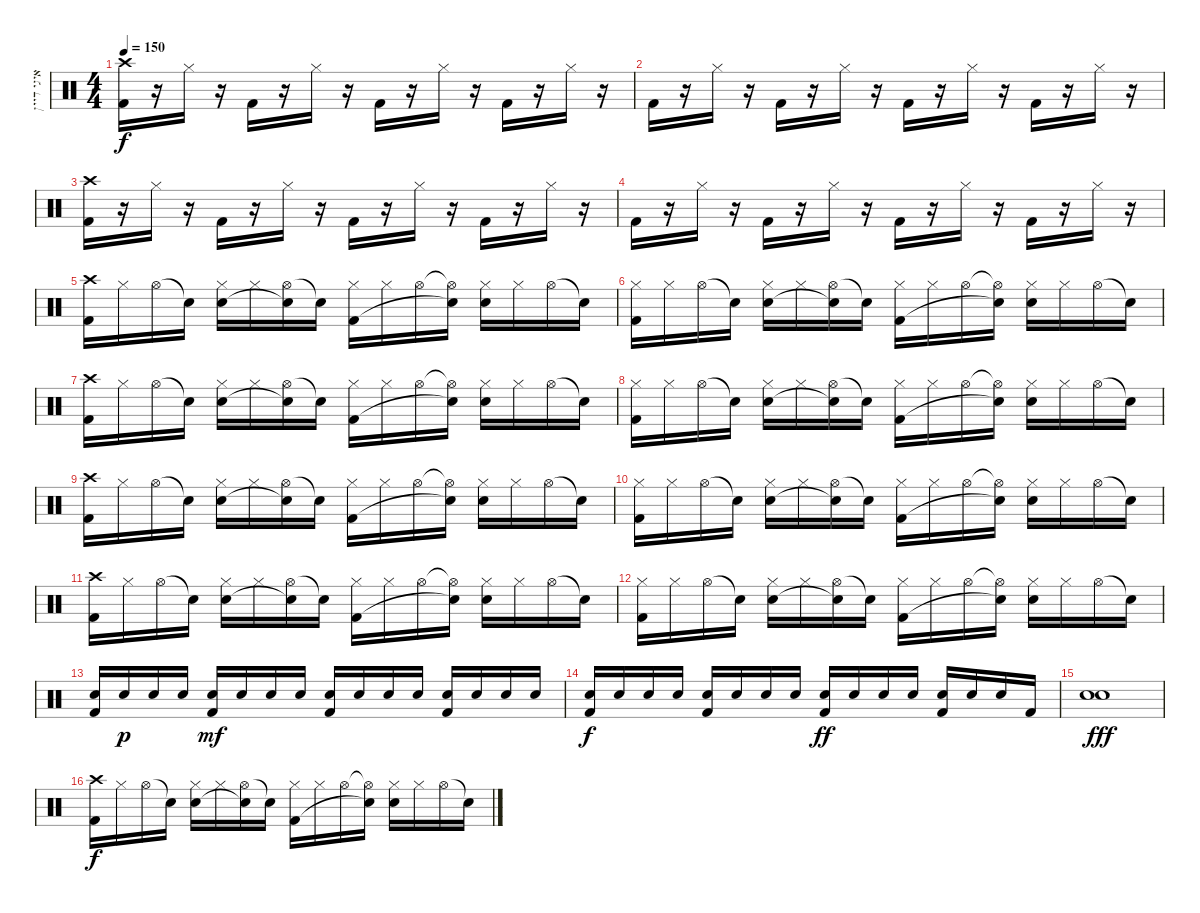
\track ("איגי דיין" "איגי דיין") {instrument percussion}
\staff {score}
\articulation defaults
\ts (4 4)
\tempo 150
\clef neutral
\ks c
("Crash high (hit)" "Kick (hit) 2").16{dy f} r.16 "Hi-Hat (closed)".16 r.16 "Kick (hit) 2".16 r.16 "Hi-Hat (closed)".16 r.16 "Kick (hit) 2".16 r.16 "Hi-Hat (closed)".16 r.16 "Kick (hit) 2".16 r.16 "Hi-Hat (closed)".16 r.16 |
"Kick (hit) 2".16 r.16 "Hi-Hat (closed)".16 r.16 "Kick (hit) 2".16 r.16 "Hi-Hat (closed)".16 r.16 "Kick (hit) 2".16 r.16 "Hi-Hat (closed)".16 r.16 "Kick (hit) 2".16 r.16 "Hi-Hat (closed)".16 r.16 |
("Crash high (hit)" "Kick (hit) 2").16 r.16 "Hi-Hat (closed)".16 r.16 "Kick (hit) 2".16 r.16 "Hi-Hat (closed)".16 r.16 "Kick (hit) 2".16 r.16 "Hi-Hat (closed)".16 r.16 "Kick (hit) 2".16 r.16 "Hi-Hat (closed)".16 r.16 |
"Kick (hit) 2".16 r.16 "Hi-Hat (closed)".16 r.16 "Kick (hit) 2".16 r.16 "Hi-Hat (closed)".16 r.16 "Kick (hit) 2".16 r.16 "Hi-Hat (closed)".16 r.16 "Kick (hit) 2".16 r.16 "Hi-Hat (closed)".16 r.16 |
("Crash high (hit)" "Kick (hit) 2").16 "Hi-Hat (closed)".16 "Hi-Hat (open)".16 "Electric Snare (hit)"{t}.16 ("Hi-Hat (closed)" "Electric Snare (hit)").16 "Hi-Hat (closed)".16 ("Hi-Hat (open)" "Snare (hit)"{t}).16 "Electric Snare (hit)"{t}.16 ("Hi-Hat (closed)" "Kick (hit) 2").16 "Hi-Hat (closed)".16 "Hi-Hat (open)".16 ("Hi-Hat (open)"{t} "Electric Snare (hit)"{t}).16 ("Hi-Hat (closed)" "Electric Snare (hit)").16 "Hi-Hat (closed)".16 "Hi-Hat (open)".16 "Snare (hit)"{t}.16 |
("Hi-Hat (closed)" "Kick (hit) 2").16 "Hi-Hat (closed)".16 "Hi-Hat (open)".16 "Electric Snare (hit)"{t}.16 ("Hi-Hat (closed)" "Electric Snare (hit)").16 "Hi-Hat (closed)".16 ("Hi-Hat (open)" "Snare (hit)"{t}).16 "Electric Snare (hit)"{t}.16 ("Hi-Hat (closed)" "Kick (hit) 2").16 "Hi-Hat (closed)".16 "Hi-Hat (open)".16 ("Hi-Hat (open)"{t} "Electric Snare (hit)"{t}).16 ("Hi-Hat (closed)" "Electric Snare (hit)").16 "Hi-Hat (closed)".16 "Hi-Hat (open)".16 "Snare (hit)"{t}.16 |
("Crash high (hit)" "Kick (hit) 2").16 "Hi-Hat (closed)".16 "Hi-Hat (open)".16 "Electric Snare (hit)"{t}.16 ("Hi-Hat (closed)" "Electric Snare (hit)").16 "Hi-Hat (closed)".16 ("Hi-Hat (open)" "Snare (hit)"{t}).16 "Electric Snare (hit)"{t}.16 ("Hi-Hat (closed)" "Kick (hit) 2").16 "Hi-Hat (closed)".16 "Hi-Hat (open)".16 ("Hi-Hat (open)"{t} "Electric Snare (hit)"{t}).16 ("Hi-Hat (closed)" "Electric Snare (hit)").16 "Hi-Hat (closed)".16 "Hi-Hat (open)".16 "Snare (hit)"{t}.16 |
("Hi-Hat (closed)" "Kick (hit) 2").16 "Hi-Hat (closed)".16 "Hi-Hat (open)".16 "Electric Snare (hit)"{t}.16 ("Hi-Hat (closed)" "Electric Snare (hit)").16 "Hi-Hat (closed)".16 ("Hi-Hat (open)" "Snare (hit)"{t}).16 "Electric Snare (hit)"{t}.16 ("Hi-Hat (closed)" "Kick (hit) 2").16 "Hi-Hat (closed)".16 "Hi-Hat (open)".16 ("Hi-Hat (open)"{t} "Electric Snare (hit)"{t}).16 ("Hi-Hat (closed)" "Electric Snare (hit)").16 "Hi-Hat (closed)".16 "Hi-Hat (open)".16 "Snare (hit)"{t}.16 |
("Crash high (hit)" "Kick (hit) 2").16 "Hi-Hat (closed)".16 "Hi-Hat (open)".16 "Electric Snare (hit)"{t}.16 ("Hi-Hat (closed)" "Electric Snare (hit)").16 "Hi-Hat (closed)".16 ("Hi-Hat (open)" "Snare (hit)"{t}).16 "Electric Snare (hit)"{t}.16 ("Hi-Hat (closed)" "Kick (hit) 2").16 "Hi-Hat (closed)".16 "Hi-Hat (open)".16 ("Hi-Hat (open)"{t} "Electric Snare (hit)"{t}).16 ("Hi-Hat (closed)" "Electric Snare (hit)").16 "Hi-Hat (closed)".16 "Hi-Hat (open)".16 "Snare (hit)"{t}.16 |
("Hi-Hat (closed)" "Kick (hit) 2").16 "Hi-Hat (closed)".16 "Hi-Hat (open)".16 "Electric Snare (hit)"{t}.16 ("Hi-Hat (closed)" "Electric Snare (hit)").16 "Hi-Hat (closed)".16 ("Hi-Hat (open)" "Snare (hit)"{t}).16 "Electric Snare (hit)"{t}.16 ("Hi-Hat (closed)" "Kick (hit) 2").16 "Hi-Hat (closed)".16 "Hi-Hat (open)".16 ("Hi-Hat (open)"{t} "Electric Snare (hit)"{t}).16 ("Hi-Hat (closed)" "Electric Snare (hit)").16 "Hi-Hat (closed)".16 "Hi-Hat (open)".16 "Snare (hit)"{t}.16 |
("Crash high (hit)" "Kick (hit) 2").16 "Hi-Hat (closed)".16 "Hi-Hat (open)".16 "Electric Snare (hit)"{t}.16 ("Hi-Hat (closed)" "Electric Snare (hit)").16 "Hi-Hat (closed)".16 ("Hi-Hat (open)" "Snare (hit)"{t}).16 "Electric Snare (hit)"{t}.16 ("Hi-Hat (closed)" "Kick (hit) 2").16 "Hi-Hat (closed)".16 "Hi-Hat (open)".16 ("Hi-Hat (open)"{t} "Electric Snare (hit)"{t}).16 ("Hi-Hat (closed)" "Electric Snare (hit)").16 "Hi-Hat (closed)".16 "Hi-Hat (open)".16 "Snare (hit)"{t}.16 |
("Hi-Hat (closed)" "Kick (hit) 2").16 "Hi-Hat (closed)".16 "Hi-Hat (open)".16 "Electric Snare (hit)"{t}.16 ("Hi-Hat (closed)" "Electric Snare (hit)").16 "Hi-Hat (closed)".16 ("Hi-Hat (open)" "Snare (hit)"{t}).16 "Electric Snare (hit)"{t}.16 ("Hi-Hat (closed)" "Kick (hit) 2").16 "Hi-Hat (closed)".16 "Hi-Hat (open)".16 ("Hi-Hat (open)"{t} "Electric Snare (hit)"{t}).16 ("Hi-Hat (closed)" "Electric Snare (hit)").16 "Hi-Hat (closed)".16 "Hi-Hat (open)".16 "Snare (hit)"{t}.16 |
("Electric Snare (hit)" "Kick (hit) 2").16 "Electric Snare (hit)".16{dy p} "Electric Snare (hit)".16 "Electric Snare (hit)".16 ("Electric Snare (hit)" "Kick (hit) 2").16{dy mf} "Electric Snare (hit)".16 "Electric Snare (hit)".16 "Electric Snare (hit)".16 ("Electric Snare (hit)" "Kick (hit) 2").16 "Electric Snare (hit)".16 "Electric Snare (hit)".16 "Electric Snare (hit)".16 ("Electric Snare (hit)" "Kick (hit) 2").16 "Electric Snare (hit)".16 "Electric Snare (hit)".16 "Electric Snare (hit)".16 |
("Electric Snare (hit)" "Kick (hit) 2").16{dy f} "Electric Snare (hit)".16 "Electric Snare (hit)".16 "Electric Snare (hit)".16 ("Electric Snare (hit)" "Kick (hit) 2").16 "Electric Snare (hit)".16 "Electric Snare (hit)".16 "Electric Snare (hit)".16 ("Electric Snare (hit)" "Kick (hit) 2").16{dy ff} "Electric Snare (hit)".16 "Electric Snare (hit)".16 "Electric Snare (hit)".16 ("Electric Snare (hit)" "Kick (hit) 2").16 "Electric Snare (hit)".16 "Electric Snare (hit)".16 "Kick (hit) 2".16 |
("Electric Snare (hit)" "Electric Snare (hit)").1{dy fff} |
("Crash high (hit)" "Kick (hit) 2").16{dy f} "Hi-Hat (closed)".16 "Hi-Hat (open)".16 "Electric Snare (hit)"{t}.16 ("Hi-Hat (closed)" "Electric Snare (hit)").16 "Hi-Hat (closed)".16 ("Hi-Hat (open)" "Snare (hit)"{t}).16 "Electric Snare (hit)"{t}.16 ("Hi-Hat (closed)" "Kick (hit) 2").16 "Hi-Hat (closed)".16 "Hi-Hat (open)".16 ("Hi-Hat (open)"{t} "Electric Snare (hit)"{t}).16 ("Hi-Hat (closed)" "Electric Snare (hit)").16 "Hi-Hat (closed)".16 "Hi-Hat (open)".16 "Snare (hit)"{t}.16
